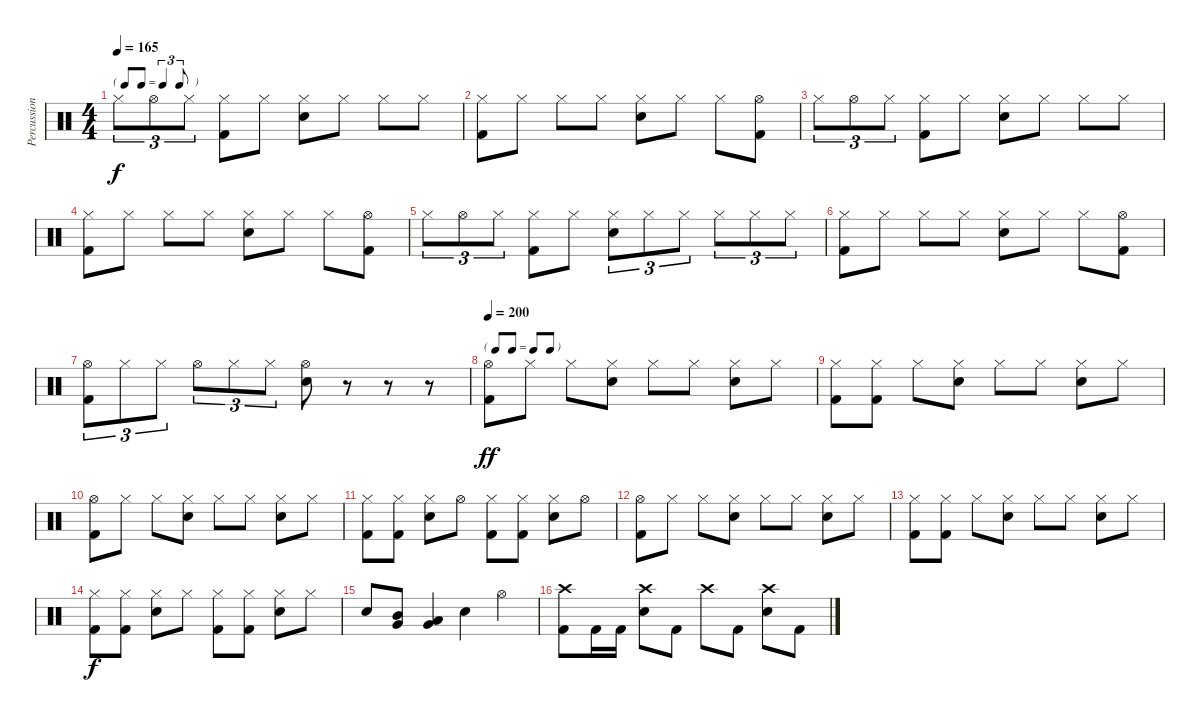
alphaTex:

\track ("Percussion" "Percussion") {instrument percussion}
\staff {score}
\articulation defaults
\ts (4 4)
\tf triplet8th
\tempo 165
\clef neutral
\ks c "Hi-Hat (closed)".8{tu (3 2) dy f} "Hi-Hat (open)".8{tu (3 2)} "Hi-Hat (closed)".8{tu (3 2)}
("Hi-Hat (closed)" "Kick (hit) 2").8 "Hi-Hat (closed)".8 ("Hi-Hat (closed)" "Snare (hit) 2").8 "Hi-Hat (closed)".8 "Hi-Hat (closed)".8 "Hi-Hat (closed)".8 |
("Hi-Hat (closed)" "Kick (hit) 2").8 "Hi-Hat (closed)".8 "Hi-Hat (closed)".8 "Hi-Hat (closed)".8 ("Hi-Hat (closed)" "Snare (hit) 2").8 "Hi-Hat (closed)".8 "Hi-Hat (closed)".8 ("Hi-Hat (open)" "Kick (hit) 2").8 |
"Hi-Hat (closed)".8{tu (3 2)} "Hi-Hat (open)".8{tu (3 2)} "Hi-Hat (closed)".8{tu (3 2)} ("Hi-Hat (closed)" "Kick (hit) 2").8 "Hi-Hat (closed)".8 ("Hi-Hat (closed)" "Snare (hit) 2").8 "Hi-Hat (closed)".8 "Hi-Hat (closed)".8 "Hi-Hat (closed)".8 |
("Hi-Hat (closed)" "Kick (hit) 2").8 "Hi-Hat (closed)".8 "Hi-Hat (closed)".8 "Hi-Hat (closed)".8 ("Hi-Hat (closed)" "Snare (hit) 2").8 "Hi-Hat (closed)".8 "Hi-Hat (closed)".8 ("Hi-Hat (open)" "Kick (hit) 2").8 |
"Hi-Hat (closed)".8{tu (3 2)} "Hi-Hat (open)".8{tu (3 2)} "Hi-Hat (closed)".8{tu (3 2)} ("Hi-Hat (closed)" "Kick (hit) 2").8 "Hi-Hat (closed)".8 ("Hi-Hat (closed)" "Snare (hit) 2").8{tu (3 2)} "Hi-Hat (closed)".8{tu (3 2)} "Hi-Hat (closed)".8{tu (3 2)} "Hi-Hat (closed)".8{tu (3 2)} "Hi-Hat (closed)".8{tu (3 2)} "Hi-Hat (closed)".8{tu (3 2)} |
("Hi-Hat (closed)" "Kick (hit) 2").8 "Hi-Hat (closed)".8 "Hi-Hat (closed)".8 "Hi-Hat (closed)".8 ("Hi-Hat (closed)" "Snare (hit) 2").8 "Hi-Hat (closed)".8 "Hi-Hat (closed)".8 ("Hi-Hat (open)" "Kick (hit) 2").8 |
("Hi-Hat (open)" "Kick (hit) 2").8{tu (3 2)} "Hi-Hat (closed)".8{tu (3 2)} "Hi-Hat (closed)".8{tu (3 2)} "Hi-Hat (open)".8{tu (3 2)} "Hi-Hat (closed)".8{tu (3 2)} "Hi-Hat (closed)".8{tu (3 2)} ("Hi-Hat (open)" "Snare (hit) 2").8 r.8 r.8 r.8 |
\tf none
\tempo 200
("Hi-Hat (open)" "Kick (hit) 2").8{dy ff} "Hi-Hat (closed)".8 "Hi-Hat (closed)".8 ("Hi-Hat (closed)" "Snare (hit) 2").8 "Hi-Hat (closed)".8 "Hi-Hat (closed)".8 ("Hi-Hat (closed)" "Snare (hit) 2").8 "Hi-Hat (closed)".8 |
("Hi-Hat (closed)" "Kick (hit) 2").8 ("Hi-Hat (closed)" "Kick (hit) 2").8 "Hi-Hat (closed)".8 ("Hi-Hat (closed)" "Snare (hit) 2").8 "Hi-Hat (closed)".8 "Hi-Hat (closed)".8 ("Hi-Hat (closed)" "Snare (hit) 2").8 "Hi-Hat (closed)".8 |
("Hi-Hat (open)" "Kick (hit) 2").8 "Hi-Hat (closed)".8 "Hi-Hat (closed)".8 ("Hi-Hat (closed)" "Snare (hit) 2").8 "Hi-Hat (closed)".8 "Hi-Hat (closed)".8 ("Hi-Hat (closed)" "Snare (hit) 2").8 "Hi-Hat (closed)".8 |
("Hi-Hat (closed)" "Kick (hit) 2").8 ("Hi-Hat (closed)" "Kick (hit) 2").8 ("Hi-Hat (closed)" "Snare (hit) 2").8 "Hi-Hat (open)".8 ("Hi-Hat (closed)" "Kick (hit) 2").8 ("Hi-Hat (closed)" "Kick (hit) 2").8 ("Hi-Hat (closed)" "Snare (hit) 2").8 "Hi-Hat (open)".8 |
("Hi-Hat (open)" "Kick (hit) 2").8 "Hi-Hat (closed)".8 "Hi-Hat (closed)".8 ("Hi-Hat (closed)" "Snare (hit) 2").8 "Hi-Hat (closed)".8 "Hi-Hat (closed)".8 ("Hi-Hat (closed)" "Snare (hit) 2").8 "Hi-Hat (closed)".8 |
("Hi-Hat (closed)" "Kick (hit) 2").8 ("Hi-Hat (closed)" "Kick (hit) 2").8 "Hi-Hat (closed)".8 ("Hi-Hat (closed)" "Snare (hit) 2").8 "Hi-Hat (closed)".8 "Hi-Hat (closed)".8 ("Hi-Hat (closed)" "Snare (hit) 2").8 "Hi-Hat (closed)".8 |
("Hi-Hat (closed)" "Kick (hit) 2").8{dy f} ("Hi-Hat (closed)" "Kick (hit) 2").8 ("Hi-Hat (closed)" "Snare (hit) 2").8 "Hi-Hat (closed)".8 ("Hi-Hat (closed)" "Kick (hit) 2").8 ("Hi-Hat (closed)" "Kick (hit) 2").8 ("Hi-Hat (closed)" "Snare (hit) 2").8 "Hi-Hat (closed)".8 |
"Snare (hit) 2".8 ("Mid Tom (hit)" "Very Low Tom (hit)").8 ("Low Tom (hit)" "Very Low Tom (hit)").4 "Snare (hit) 2".4 "Hi-Hat (open)".4 |
("Crash high (hit)" "Kick (hit) 2").8 "Kick (hit) 2".16 "Kick (hit) 2".16 ("Crash high (hit)" "Snare (hit) 2").8 "Kick (hit) 2".8 "Crash high (hit)".8 "Kick (hit) 2".8 ("Crash high (hit)" "Snare (hit) 2").8 "Kick (hit) 2".8
